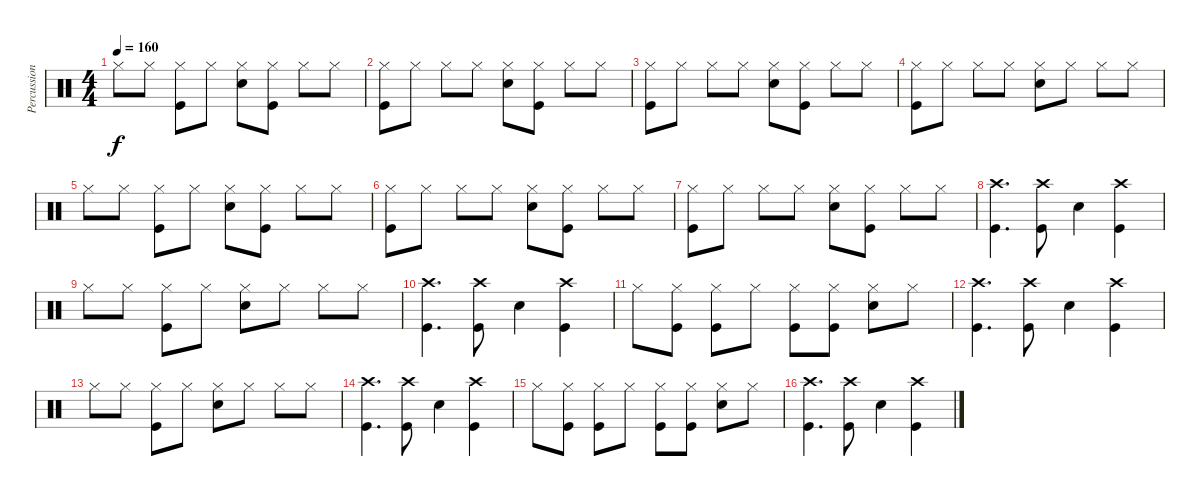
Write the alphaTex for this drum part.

\track ("Percussion" "Percussion") {instrument percussion}
\staff {score}
\articulation defaults
\ts (4 4)
\tempo 160
\clef neutral
\ks c "Hi-Hat (closed)".8{dy f} "Hi-Hat (closed)".8
("Hi-Hat (closed)" "Kick (hit)").8 "Hi-Hat (closed)".8 ("Hi-Hat (closed)" "Snare (hit) 2").8 ("Hi-Hat (closed)" "Kick (hit)").8 "Hi-Hat (closed)".8 "Hi-Hat (closed)".8 |
("Hi-Hat (closed)" "Kick (hit)").8 "Hi-Hat (closed)".8 "Hi-Hat (closed)".8 "Hi-Hat (closed)".8 ("Hi-Hat (closed)" "Snare (hit) 2").8 ("Hi-Hat (closed)" "Kick (hit)").8 "Hi-Hat (closed)".8 "Hi-Hat (closed)".8 |
("Hi-Hat (closed)" "Kick (hit)").8 "Hi-Hat (closed)".8 "Hi-Hat (closed)".8 "Hi-Hat (closed)".8 ("Hi-Hat (closed)" "Snare (hit) 2").8 ("Hi-Hat (closed)" "Kick (hit)").8 "Hi-Hat (closed)".8 "Hi-Hat (closed)".8 |
("Hi-Hat (closed)" "Kick (hit)").8 "Hi-Hat (closed)".8 "Hi-Hat (closed)".8 "Hi-Hat (closed)".8 ("Hi-Hat (closed)" "Snare (hit) 2").8 "Hi-Hat (closed)".8 "Hi-Hat (closed)".8 "Hi-Hat (closed)".8 |
"Hi-Hat (closed)".8 "Hi-Hat (closed)".8 ("Hi-Hat (closed)" "Kick (hit)").8 "Hi-Hat (closed)".8 ("Hi-Hat (closed)" "Snare (hit) 2").8 ("Hi-Hat (closed)" "Kick (hit)").8 "Hi-Hat (closed)".8 "Hi-Hat (closed)".8 |
("Hi-Hat (closed)" "Kick (hit)").8 "Hi-Hat (closed)".8 "Hi-Hat (closed)".8 "Hi-Hat (closed)".8 ("Hi-Hat (closed)" "Snare (hit) 2").8 ("Hi-Hat (closed)" "Kick (hit)").8 "Hi-Hat (closed)".8 "Hi-Hat (closed)".8 |
("Hi-Hat (closed)" "Kick (hit)").8 "Hi-Hat (closed)".8 "Hi-Hat (closed)".8 "Hi-Hat (closed)".8 ("Hi-Hat (closed)" "Snare (hit) 2").8 ("Hi-Hat (closed)" "Kick (hit)").8 "Hi-Hat (closed)".8 "Hi-Hat (closed)".8 |
("Crash high (hit)" "Kick (hit)").4{d} ("Crash high (hit)" "Kick (hit)").8 "Snare (hit) 2".4 ("Crash high (hit)" "Kick (hit)").4 |
"Hi-Hat (closed)".8 "Hi-Hat (closed)".8 ("Hi-Hat (closed)" "Kick (hit)").8 "Hi-Hat (closed)".8 ("Hi-Hat (closed)" "Snare (hit) 2").8 "Hi-Hat (closed)".8 "Hi-Hat (closed)".8 "Hi-Hat (closed)".8 |
("Crash high (hit)" "Kick (hit)").4{d} ("Crash high (hit)" "Kick (hit)").8 "Snare (hit) 2".4 ("Crash high (hit)" "Kick (hit)").4 |
"Hi-Hat (closed)".8 ("Hi-Hat (closed)" "Kick (hit)").8 ("Hi-Hat (closed)" "Kick (hit)").8 "Hi-Hat (closed)".8 ("Hi-Hat (closed)" "Kick (hit)").8 ("Hi-Hat (closed)" "Kick (hit)").8 ("Hi-Hat (closed)" "Snare (hit) 2").8 "Hi-Hat (closed)".8 |
("Crash high (hit)" "Kick (hit)").4{d} ("Crash high (hit)" "Kick (hit)").8 "Snare (hit) 2".4 ("Crash high (hit)" "Kick (hit)").4 |
"Hi-Hat (closed)".8 "Hi-Hat (closed)".8 ("Hi-Hat (closed)" "Kick (hit)").8 "Hi-Hat (closed)".8 ("Hi-Hat (closed)" "Snare (hit) 2").8 "Hi-Hat (closed)".8 "Hi-Hat (closed)".8 "Hi-Hat (closed)".8 |
("Crash high (hit)" "Kick (hit)").4{d} ("Crash high (hit)" "Kick (hit)").8 "Snare (hit) 2".4 ("Crash high (hit)" "Kick (hit)").4 |
"Hi-Hat (closed)".8 ("Hi-Hat (closed)" "Kick (hit)").8 ("Hi-Hat (closed)" "Kick (hit)").8 "Hi-Hat (closed)".8 ("Hi-Hat (closed)" "Kick (hit)").8 ("Hi-Hat (closed)" "Kick (hit)").8 ("Hi-Hat (closed)" "Snare (hit) 2").8 "Hi-Hat (closed)".8 |
("Crash high (hit)" "Kick (hit)").4{d} ("Crash high (hit)" "Kick (hit)").8 "Snare (hit) 2".4 ("Crash high (hit)" "Kick (hit)").4
